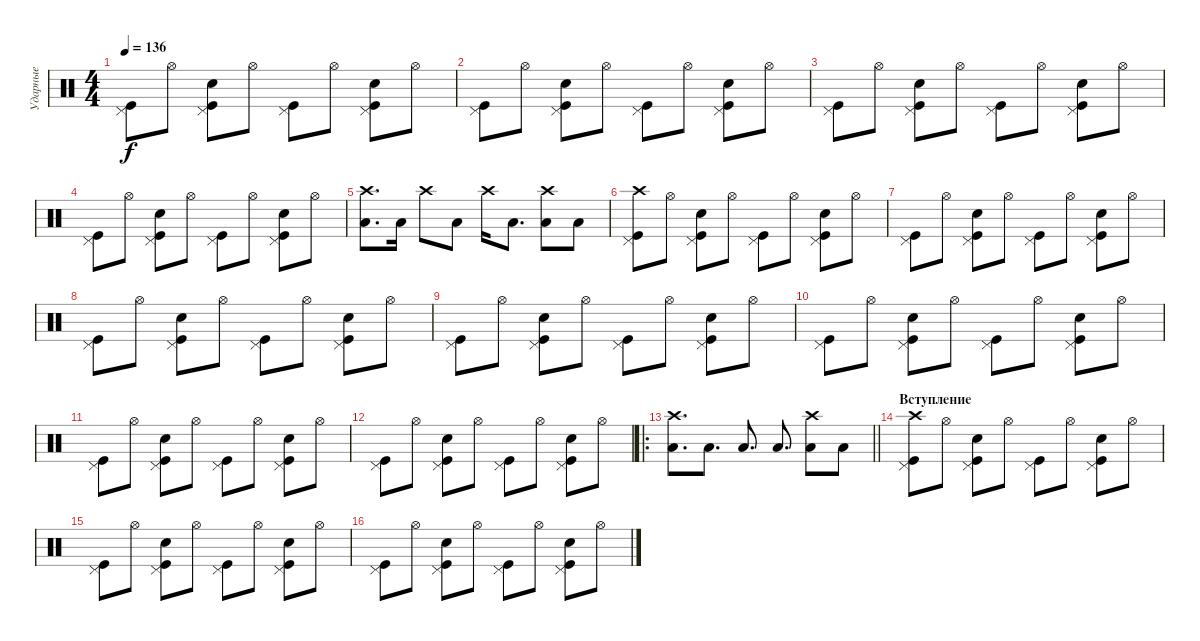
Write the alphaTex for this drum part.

\track ("Ударные" "Ударные") {instrument percussion}
\staff {score}
\articulation defaults
\ts (4 4)
\tempo 136
\clef neutral
\ks c
("Kick (hit)" "Pedal Hi-Hat (hit)").8{dy f} "Hi-Hat (open)".8 ("Kick (hit)" "Hand Clap (hit)" "Pedal Hi-Hat (hit)").8 "Hi-Hat (open)".8 ("Kick (hit)" "Pedal Hi-Hat (hit)").8 "Hi-Hat (open)".8 ("Kick (hit)" "Hand Clap (hit)" "Pedal Hi-Hat (hit)").8 "Hi-Hat (open)".8 |
("Kick (hit)" "Pedal Hi-Hat (hit)").8 "Hi-Hat (open)".8 ("Kick (hit)" "Hand Clap (hit)" "Pedal Hi-Hat (hit)").8 "Hi-Hat (open)".8 ("Kick (hit)" "Pedal Hi-Hat (hit)").8 "Hi-Hat (open)".8 ("Kick (hit)" "Hand Clap (hit)" "Pedal Hi-Hat (hit)").8 "Hi-Hat (open)".8 |
("Kick (hit)" "Pedal Hi-Hat (hit)").8 "Hi-Hat (open)".8 ("Kick (hit)" "Hand Clap (hit)" "Pedal Hi-Hat (hit)").8 "Hi-Hat (open)".8 ("Kick (hit)" "Pedal Hi-Hat (hit)").8 "Hi-Hat (open)".8 ("Kick (hit)" "Hand Clap (hit)" "Pedal Hi-Hat (hit)").8 "Hi-Hat (open)".8 |
("Kick (hit)" "Pedal Hi-Hat (hit)").8 "Hi-Hat (open)".8 ("Kick (hit)" "Hand Clap (hit)" "Pedal Hi-Hat (hit)").8 "Hi-Hat (open)".8 ("Kick (hit)" "Pedal Hi-Hat (hit)").8 "Hi-Hat (open)".8 ("Kick (hit)" "Hand Clap (hit)" "Pedal Hi-Hat (hit)").8 "Hi-Hat (open)".8 |
("Low Tom (hit)" "Crash high (hit)").8{d} "Low Tom (hit)".16 "Crash high (hit)".8 "Low Tom (hit)".8 "Crash high (hit)".16 "Low Tom (hit)".8{d} ("Low Tom (hit)" "Crash high (hit)").8 "Low Tom (hit)".8 |
("Kick (hit)" "Crash high (hit)" "Pedal Hi-Hat (hit)").8 "Hi-Hat (open)".8 ("Kick (hit)" "Hand Clap (hit)" "Pedal Hi-Hat (hit)").8 "Hi-Hat (open)".8 ("Kick (hit)" "Pedal Hi-Hat (hit)").8 "Hi-Hat (open)".8 ("Kick (hit)" "Hand Clap (hit)" "Pedal Hi-Hat (hit)").8 "Hi-Hat (open)".8 |
("Kick (hit)" "Pedal Hi-Hat (hit)").8 "Hi-Hat (open)".8 ("Kick (hit)" "Hand Clap (hit)" "Pedal Hi-Hat (hit)").8 "Hi-Hat (open)".8 ("Kick (hit)" "Pedal Hi-Hat (hit)").8 "Hi-Hat (open)".8 ("Kick (hit)" "Hand Clap (hit)" "Pedal Hi-Hat (hit)").8 "Hi-Hat (open)".8 |
("Kick (hit)" "Pedal Hi-Hat (hit)").8 "Hi-Hat (open)".8 ("Kick (hit)" "Hand Clap (hit)" "Pedal Hi-Hat (hit)").8 "Hi-Hat (open)".8 ("Kick (hit)" "Pedal Hi-Hat (hit)").8 "Hi-Hat (open)".8 ("Kick (hit)" "Hand Clap (hit)" "Pedal Hi-Hat (hit)").8 "Hi-Hat (open)".8 |
("Kick (hit)" "Pedal Hi-Hat (hit)").8 "Hi-Hat (open)".8 ("Kick (hit)" "Hand Clap (hit)" "Pedal Hi-Hat (hit)").8 "Hi-Hat (open)".8 ("Kick (hit)" "Pedal Hi-Hat (hit)").8 "Hi-Hat (open)".8 ("Kick (hit)" "Hand Clap (hit)" "Pedal Hi-Hat (hit)").8 "Hi-Hat (open)".8 |
("Kick (hit)" "Pedal Hi-Hat (hit)").8 "Hi-Hat (open)".8 ("Kick (hit)" "Hand Clap (hit)" "Pedal Hi-Hat (hit)").8 "Hi-Hat (open)".8 ("Kick (hit)" "Pedal Hi-Hat (hit)").8 "Hi-Hat (open)".8 ("Kick (hit)" "Hand Clap (hit)" "Pedal Hi-Hat (hit)").8 "Hi-Hat (open)".8 |
("Kick (hit)" "Pedal Hi-Hat (hit)").8 "Hi-Hat (open)".8 ("Kick (hit)" "Hand Clap (hit)" "Pedal Hi-Hat (hit)").8 "Hi-Hat (open)".8 ("Kick (hit)" "Pedal Hi-Hat (hit)").8 "Hi-Hat (open)".8 ("Kick (hit)" "Hand Clap (hit)" "Pedal Hi-Hat (hit)").8 "Hi-Hat (open)".8 |
("Kick (hit)" "Pedal Hi-Hat (hit)").8 "Hi-Hat (open)".8 ("Kick (hit)" "Hand Clap (hit)" "Pedal Hi-Hat (hit)").8 "Hi-Hat (open)".8 ("Kick (hit)" "Pedal Hi-Hat (hit)").8 "Hi-Hat (open)".8 ("Kick (hit)" "Hand Clap (hit)" "Pedal Hi-Hat (hit)").8 "Hi-Hat (open)".8 |
\ro
\barLineRight lightlight
("Low Tom (hit)" "Crash high (hit)").8{d} "Low Tom (hit)".8{d} "Low Tom (hit)".8{d} "Low Tom (hit)".8{d} ("Low Tom (hit)" "Crash high (hit)").8 "Low Tom (hit)".8 |
\section ("" "Вступление")
("Kick (hit)" "Crash high (hit)" "Pedal Hi-Hat (hit)").8 "Hi-Hat (open)".8 ("Kick (hit)" "Hand Clap (hit)" "Pedal Hi-Hat (hit)").8 "Hi-Hat (open)".8 ("Kick (hit)" "Pedal Hi-Hat (hit)").8 "Hi-Hat (open)".8 ("Kick (hit)" "Hand Clap (hit)" "Pedal Hi-Hat (hit)").8 "Hi-Hat (open)".8 |
("Kick (hit)" "Pedal Hi-Hat (hit)").8 "Hi-Hat (open)".8 ("Kick (hit)" "Hand Clap (hit)" "Pedal Hi-Hat (hit)").8 "Hi-Hat (open)".8 ("Kick (hit)" "Pedal Hi-Hat (hit)").8 "Hi-Hat (open)".8 ("Kick (hit)" "Hand Clap (hit)" "Pedal Hi-Hat (hit)").8 "Hi-Hat (open)".8 |
("Kick (hit)" "Pedal Hi-Hat (hit)").8 "Hi-Hat (open)".8 ("Kick (hit)" "Hand Clap (hit)" "Pedal Hi-Hat (hit)").8 "Hi-Hat (open)".8 ("Kick (hit)" "Pedal Hi-Hat (hit)").8 "Hi-Hat (open)".8 ("Kick (hit)" "Hand Clap (hit)" "Pedal Hi-Hat (hit)").8 "Hi-Hat (open)".8
